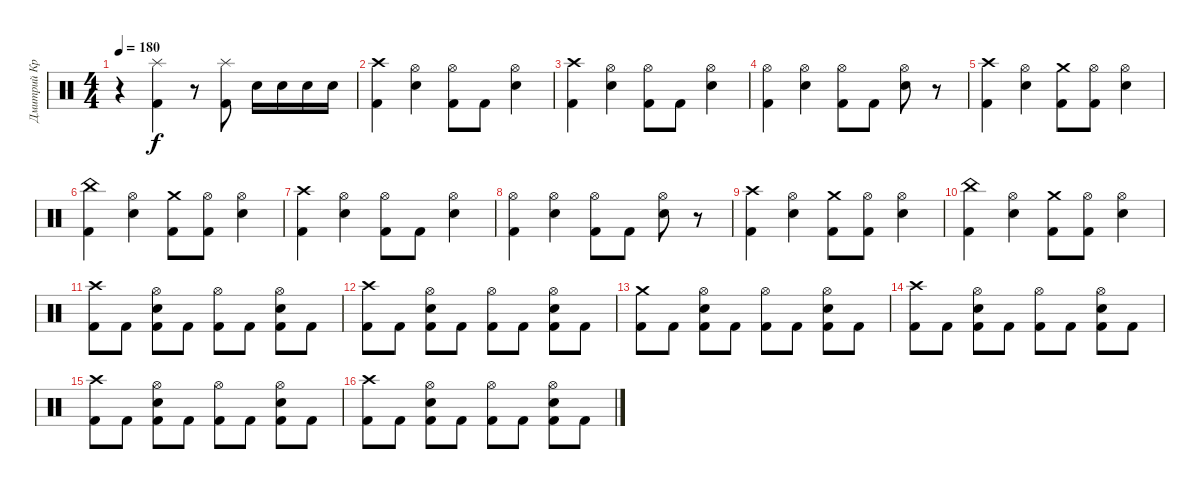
\track ("Дмитрий Кривенков" "Дмитрий Кр") {instrument percussion}
\staff {score}
\articulation defaults
\ts (4 4)
\tempo 180
\clef neutral
\ks c
r.4{dy f} ("Splash (hit)" "Kick (hit) 2").4 r.8 ("Splash (hit)" "Kick (hit) 2").8 "Snare (hit) 2".16 "Snare (hit) 2".16 "Snare (hit) 2".16 "Electric Snare (hit)".16 |
("Crash high (hit)" "Kick (hit) 2").4 ("Electric Snare (hit)" "Hi-Hat (open)").4 ("Hi-Hat (open)" "Kick (hit) 2").8 "Kick (hit) 2".8 ("Hi-Hat (open)" "Electric Snare (hit)").4 |
("Kick (hit) 2" "Crash high (hit)").4 ("Hi-Hat (open)" "Electric Snare (hit)").4 ("Kick (hit) 2" "Hi-Hat (open)").8 "Kick (hit) 2".8 ("Electric Snare (hit)" "Hi-Hat (open)").4 |
("Kick (hit) 2" "Hi-Hat (open)").4 ("Hi-Hat (open)" "Electric Snare (hit)").4 ("Kick (hit) 2" "Hi-Hat (open)").8 "Kick (hit) 2".8 ("Hi-Hat (open)" "Electric Snare (hit)").8 r.8 |
("Crash high (hit)" "Kick (hit) 2").4 ("Hi-Hat (open)" "Electric Snare (hit)").4 ("Kick (hit) 2" "Crash medium (hit)").8 ("Kick (hit) 2" "Hi-Hat (open)").8 ("Electric Snare (hit)" "Hi-Hat (open)").4 |
("Kick (hit) 2" "China (hit)").4 ("Hi-Hat (open)" "Electric Snare (hit)").4 ("Kick (hit) 2" "Crash medium (hit)").8 ("Hi-Hat (open)" "Kick (hit) 2").8 ("Electric Snare (hit)" "Hi-Hat (open)").4 |
("Kick (hit) 2" "Crash high (hit)").4 ("Hi-Hat (open)" "Electric Snare (hit)").4 ("Kick (hit) 2" "Hi-Hat (open)").8 "Kick (hit) 2".8 ("Electric Snare (hit)" "Hi-Hat (open)").4 |
("Kick (hit) 2" "Hi-Hat (open)").4 ("Hi-Hat (open)" "Electric Snare (hit)").4 ("Kick (hit) 2" "Hi-Hat (open)").8 "Kick (hit) 2".8 ("Hi-Hat (open)" "Electric Snare (hit)").8 r.8 |
("Crash high (hit)" "Kick (hit) 2").4 ("Hi-Hat (open)" "Electric Snare (hit)").4 ("Kick (hit) 2" "Crash medium (hit)").8 ("Kick (hit) 2" "Hi-Hat (open)").8 ("Electric Snare (hit)" "Hi-Hat (open)").4 |
("Kick (hit) 2" "China (hit)").4 ("Hi-Hat (open)" "Electric Snare (hit)").4 ("Kick (hit) 2" "Crash medium (hit)").8 ("Hi-Hat (open)" "Kick (hit) 2").8 ("Electric Snare (hit)" "Hi-Hat (open)").4 |
("Kick (hit) 2" "Crash high (hit)").8 "Kick (hit) 2".8 ("Hi-Hat (open)" "Electric Snare (hit)" "Kick (hit) 2").8 "Kick (hit) 2".8 ("Hi-Hat (open)" "Kick (hit) 2").8 "Kick (hit) 2".8 ("Kick (hit) 2" "Electric Snare (hit)" "Hi-Hat (open)").8 "Kick (hit) 2".8 |
("Kick (hit) 2" "Crash high (hit)").8 "Kick (hit) 2".8 ("Hi-Hat (open)" "Electric Snare (hit)" "Kick (hit) 2").8 "Kick (hit) 2".8 ("Hi-Hat (open)" "Kick (hit) 2").8 "Kick (hit) 2".8 ("Kick (hit) 2" "Electric Snare (hit)" "Hi-Hat (open)").8 "Kick (hit) 2".8 |
("Kick (hit) 2" "Crash medium (hit)").8 "Kick (hit) 2".8 ("Hi-Hat (open)" "Electric Snare (hit)" "Kick (hit) 2").8 "Kick (hit) 2".8 ("Hi-Hat (open)" "Kick (hit) 2").8 "Kick (hit) 2".8 ("Kick (hit) 2" "Electric Snare (hit)" "Hi-Hat (open)").8 "Kick (hit) 2".8 |
("Kick (hit) 2" "Crash high (hit)").8 "Kick (hit) 2".8 ("Hi-Hat (open)" "Electric Snare (hit)" "Kick (hit) 2").8 "Kick (hit) 2".8 ("Hi-Hat (open)" "Kick (hit) 2").8 "Kick (hit) 2".8 ("Kick (hit) 2" "Electric Snare (hit)" "Hi-Hat (open)").8 "Kick (hit) 2".8 |
("Kick (hit) 2" "Crash high (hit)").8 "Kick (hit) 2".8 ("Hi-Hat (open)" "Electric Snare (hit)" "Kick (hit) 2").8 "Kick (hit) 2".8 ("Hi-Hat (open)" "Kick (hit) 2").8 "Kick (hit) 2".8 ("Kick (hit) 2" "Electric Snare (hit)" "Hi-Hat (open)").8 "Kick (hit) 2".8 |
("Kick (hit) 2" "Crash high (hit)").8 "Kick (hit) 2".8 ("Hi-Hat (open)" "Electric Snare (hit)" "Kick (hit) 2").8 "Kick (hit) 2".8 ("Hi-Hat (open)" "Kick (hit) 2").8 "Kick (hit) 2".8 ("Kick (hit) 2" "Electric Snare (hit)" "Hi-Hat (open)").8 "Kick (hit) 2".8
